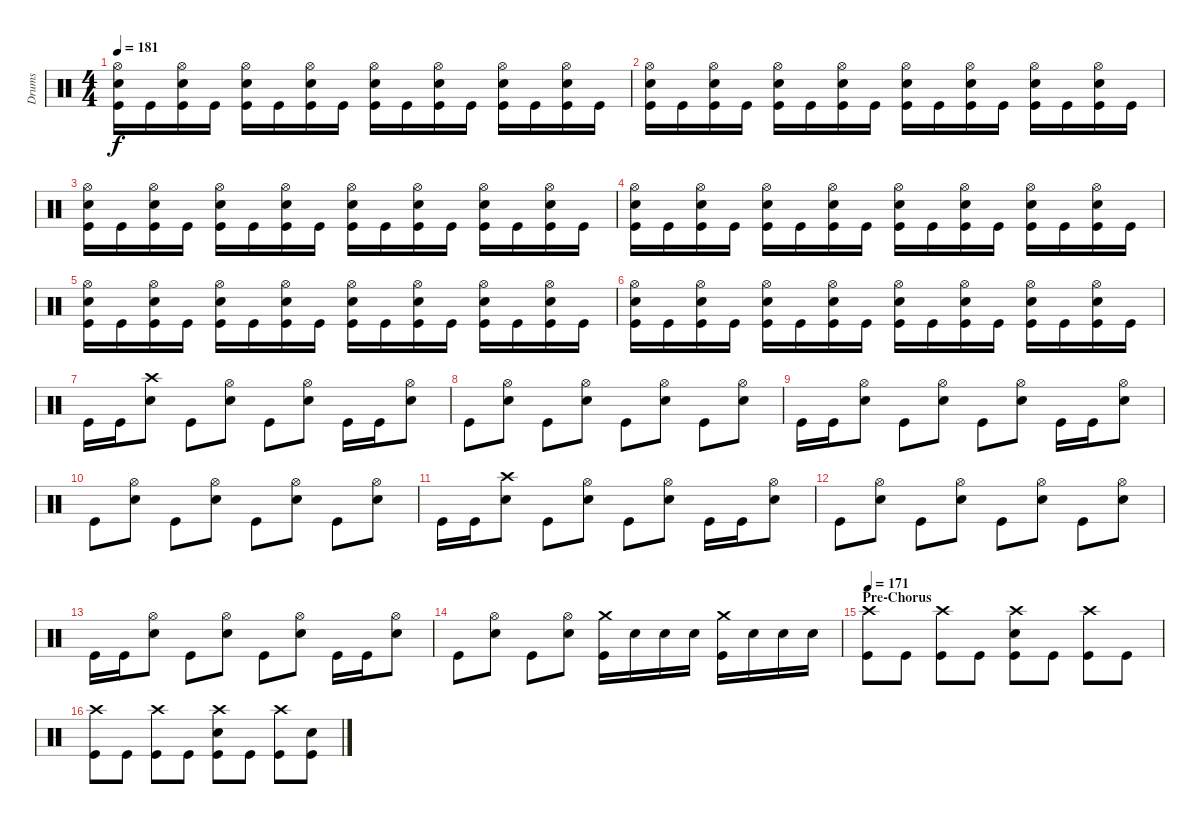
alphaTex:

\track ("Drums" "Drums") {instrument percussion}
\staff {score}
\articulation defaults
\ts (4 4)
\tempo 181
\clef neutral
\ks c
("Hi-Hat (open)" "Snare (hit) 2" "Kick (hit)").16{dy f} "Kick (hit)".16 ("Hi-Hat (open)" "Snare (hit) 2" "Kick (hit)").16 "Kick (hit)".16 ("Hi-Hat (open)" "Snare (hit) 2" "Kick (hit)").16 "Kick (hit)".16 ("Hi-Hat (open)" "Snare (hit) 2" "Kick (hit)").16 "Kick (hit)".16 ("Hi-Hat (open)" "Snare (hit) 2" "Kick (hit)").16 "Kick (hit)".16 ("Hi-Hat (open)" "Snare (hit) 2" "Kick (hit)").16 "Kick (hit)".16 ("Hi-Hat (open)" "Snare (hit) 2" "Kick (hit)").16 "Kick (hit)".16 ("Hi-Hat (open)" "Snare (hit) 2" "Kick (hit)").16 "Kick (hit)".16 |
("Hi-Hat (open)" "Snare (hit) 2" "Kick (hit)").16 "Kick (hit)".16 ("Hi-Hat (open)" "Snare (hit) 2" "Kick (hit)").16 "Kick (hit)".16 ("Hi-Hat (open)" "Snare (hit) 2" "Kick (hit)").16 "Kick (hit)".16 ("Hi-Hat (open)" "Snare (hit) 2" "Kick (hit)").16 "Kick (hit)".16 ("Hi-Hat (open)" "Snare (hit) 2" "Kick (hit)").16 "Kick (hit)".16 ("Hi-Hat (open)" "Snare (hit) 2" "Kick (hit)").16 "Kick (hit)".16 ("Hi-Hat (open)" "Snare (hit) 2" "Kick (hit)").16 "Kick (hit)".16 ("Hi-Hat (open)" "Snare (hit) 2" "Kick (hit)").16 "Kick (hit)".16 |
("Hi-Hat (open)" "Snare (hit) 2" "Kick (hit)").16 "Kick (hit)".16 ("Hi-Hat (open)" "Snare (hit) 2" "Kick (hit)").16 "Kick (hit)".16 ("Hi-Hat (open)" "Snare (hit) 2" "Kick (hit)").16 "Kick (hit)".16 ("Hi-Hat (open)" "Snare (hit) 2" "Kick (hit)").16 "Kick (hit)".16 ("Hi-Hat (open)" "Snare (hit) 2" "Kick (hit)").16 "Kick (hit)".16 ("Hi-Hat (open)" "Snare (hit) 2" "Kick (hit)").16 "Kick (hit)".16 ("Hi-Hat (open)" "Snare (hit) 2" "Kick (hit)").16 "Kick (hit)".16 ("Hi-Hat (open)" "Snare (hit) 2" "Kick (hit)").16 "Kick (hit)".16 |
("Hi-Hat (open)" "Snare (hit) 2" "Kick (hit)").16 "Kick (hit)".16 ("Hi-Hat (open)" "Snare (hit) 2" "Kick (hit)").16 "Kick (hit)".16 ("Hi-Hat (open)" "Snare (hit) 2" "Kick (hit)").16 "Kick (hit)".16 ("Hi-Hat (open)" "Snare (hit) 2" "Kick (hit)").16 "Kick (hit)".16 ("Hi-Hat (open)" "Snare (hit) 2" "Kick (hit)").16 "Kick (hit)".16 ("Hi-Hat (open)" "Snare (hit) 2" "Kick (hit)").16 "Kick (hit)".16 ("Hi-Hat (open)" "Snare (hit) 2" "Kick (hit)").16 "Kick (hit)".16 ("Hi-Hat (open)" "Snare (hit) 2" "Kick (hit)").16 "Kick (hit)".16 |
("Hi-Hat (open)" "Snare (hit) 2" "Kick (hit)").16 "Kick (hit)".16 ("Hi-Hat (open)" "Snare (hit) 2" "Kick (hit)").16 "Kick (hit)".16 ("Hi-Hat (open)" "Snare (hit) 2" "Kick (hit)").16 "Kick (hit)".16 ("Hi-Hat (open)" "Snare (hit) 2" "Kick (hit)").16 "Kick (hit)".16 ("Hi-Hat (open)" "Snare (hit) 2" "Kick (hit)").16 "Kick (hit)".16 ("Hi-Hat (open)" "Snare (hit) 2" "Kick (hit)").16 "Kick (hit)".16 ("Hi-Hat (open)" "Snare (hit) 2" "Kick (hit)").16 "Kick (hit)".16 ("Hi-Hat (open)" "Snare (hit) 2" "Kick (hit)").16 "Kick (hit)".16 |
("Hi-Hat (open)" "Snare (hit) 2" "Kick (hit)").16 "Kick (hit)".16 ("Hi-Hat (open)" "Snare (hit) 2" "Kick (hit)").16 "Kick (hit)".16 ("Hi-Hat (open)" "Snare (hit) 2" "Kick (hit)").16 "Kick (hit)".16 ("Hi-Hat (open)" "Snare (hit) 2" "Kick (hit)").16 "Kick (hit)".16 ("Hi-Hat (open)" "Snare (hit) 2" "Kick (hit)").16 "Kick (hit)".16 ("Hi-Hat (open)" "Snare (hit) 2" "Kick (hit)").16 "Kick (hit)".16 ("Hi-Hat (open)" "Snare (hit) 2" "Kick (hit)").16 "Kick (hit)".16 ("Hi-Hat (open)" "Snare (hit) 2" "Kick (hit)").16 "Kick (hit)".16 |
"Kick (hit)".16 "Kick (hit)".16 ("Crash high (hit)" "Snare (hit) 2").8 "Kick (hit)".8 ("Hi-Hat (open)" "Snare (hit) 2").8 "Kick (hit)".8 ("Hi-Hat (open)" "Snare (hit) 2").8 "Kick (hit)".16 "Kick (hit)".16 ("Hi-Hat (open)" "Snare (hit) 2").8 |
"Kick (hit)".8 ("Hi-Hat (open)" "Snare (hit) 2").8 "Kick (hit)".8 ("Hi-Hat (open)" "Snare (hit) 2").8 "Kick (hit)".8 ("Hi-Hat (open)" "Snare (hit) 2").8 "Kick (hit)".8 ("Hi-Hat (open)" "Snare (hit) 2").8 |
"Kick (hit)".16 "Kick (hit)".16 ("Hi-Hat (open)" "Snare (hit) 2").8 "Kick (hit)".8 ("Hi-Hat (open)" "Snare (hit) 2").8 "Kick (hit)".8 ("Hi-Hat (open)" "Snare (hit) 2").8 "Kick (hit)".16 "Kick (hit)".16 ("Hi-Hat (open)" "Snare (hit) 2").8 |
"Kick (hit)".8 ("Hi-Hat (open)" "Snare (hit) 2").8 "Kick (hit)".8 ("Hi-Hat (open)" "Snare (hit) 2").8 "Kick (hit)".8 ("Hi-Hat (open)" "Snare (hit) 2").8 "Kick (hit)".8 ("Hi-Hat (open)" "Snare (hit) 2").8 |
"Kick (hit)".16 "Kick (hit)".16 ("Crash high (hit)" "Snare (hit) 2").8 "Kick (hit)".8 ("Hi-Hat (open)" "Snare (hit) 2").8 "Kick (hit)".8 ("Hi-Hat (open)" "Snare (hit) 2").8 "Kick (hit)".16 "Kick (hit)".16 ("Hi-Hat (open)" "Snare (hit) 2").8 |
"Kick (hit)".8 ("Hi-Hat (open)" "Snare (hit) 2").8 "Kick (hit)".8 ("Hi-Hat (open)" "Snare (hit) 2").8 "Kick (hit)".8 ("Hi-Hat (open)" "Snare (hit) 2").8 "Kick (hit)".8 ("Hi-Hat (open)" "Snare (hit) 2").8 |
"Kick (hit)".16 "Kick (hit)".16 ("Hi-Hat (open)" "Snare (hit) 2").8 "Kick (hit)".8 ("Hi-Hat (open)" "Snare (hit) 2").8 "Kick (hit)".8 ("Hi-Hat (open)" "Snare (hit) 2").8 "Kick (hit)".16 "Kick (hit)".16 ("Hi-Hat (open)" "Snare (hit) 2").8 |
"Kick (hit)".8 ("Hi-Hat (open)" "Snare (hit) 2").8 "Kick (hit)".8 ("Hi-Hat (open)" "Snare (hit) 2").8 ("Crash medium (hit)" "Kick (hit)").16 "Snare (hit) 2".16 "Snare (hit) 2".16 "Snare (hit) 2".16 ("Crash medium (hit)" "Kick (hit)").16 "Snare (hit) 2".16 "Snare (hit) 2".16 "Snare (hit) 2".16 |
\section ("" "Pre-Chorus")
\tempo 171
("Crash high (hit)" "Kick (hit)").8 "Kick (hit)".8 ("Crash high (hit)" "Kick (hit)").8 "Kick (hit)".8 ("Crash high (hit)" "Snare (hit) 2" "Kick (hit)").8 "Kick (hit)".8 ("Crash high (hit)" "Kick (hit)").8 "Kick (hit)".8 |
("Crash high (hit)" "Kick (hit)").8 "Kick (hit)".8 ("Crash high (hit)" "Kick (hit)").8 "Kick (hit)".8 ("Crash high (hit)" "Snare (hit) 2" "Kick (hit)").8 "Kick (hit)".8 ("Crash high (hit)" "Kick (hit)").8 ("Snare (hit) 2" "Kick (hit)").8
